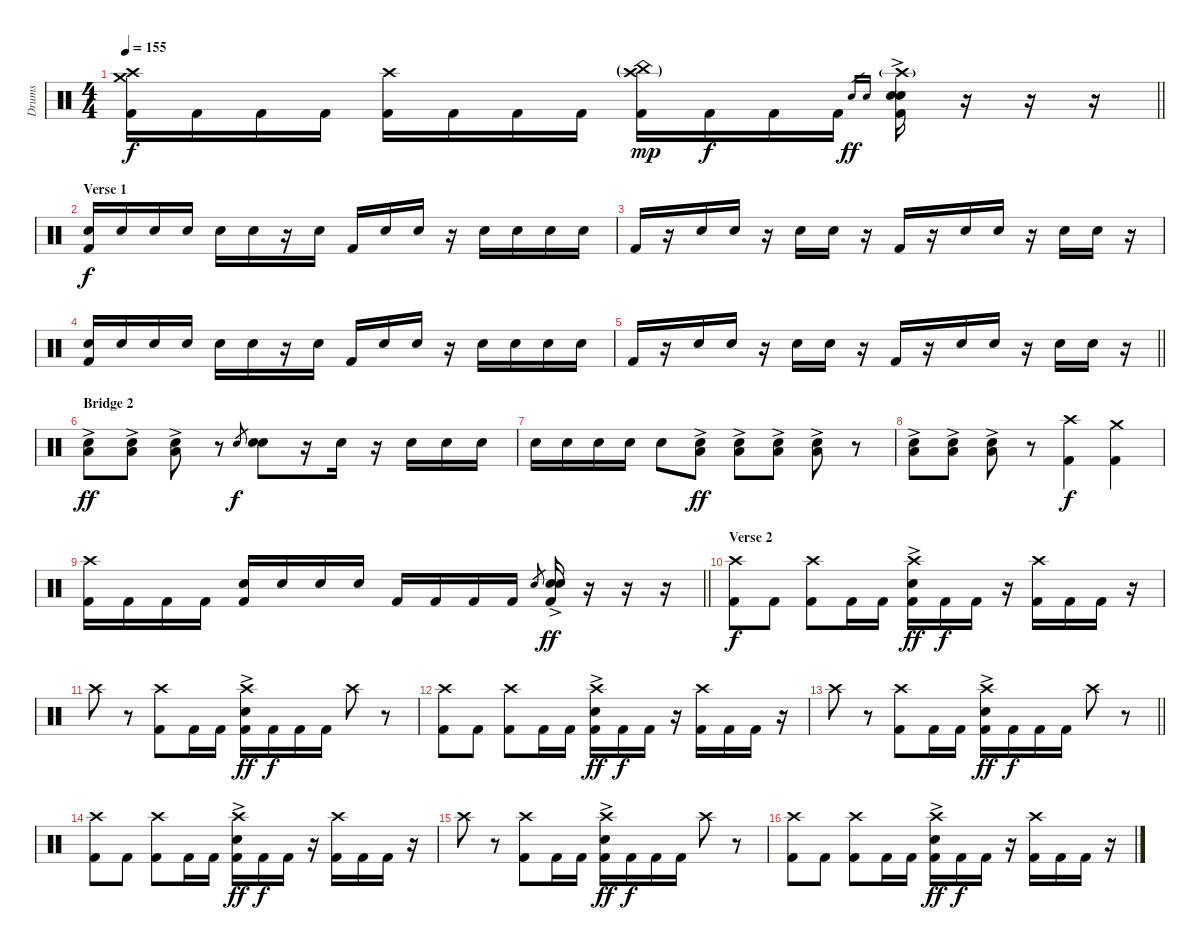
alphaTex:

\track ("Drums" "Drums") {instrument percussion}
\staff {score}
\articulation defaults
\ts (4 4)
\tempo 155
\clef neutral
\barLineRight lightlight
\ks c
("Crash high (hit)" "Crash medium (hit)" "Kick (hit) 2").16{dy f} "Kick (hit) 2".16 "Kick (hit) 2".16 "Kick (hit) 2".16 ("Crash high (hit)" "Kick (hit) 2").16 "Kick (hit) 2".16 "Kick (hit) 2".16 "Kick (hit) 2".16 ("Crash high (hit)"{g} "China (hit)"{g} "Kick (hit) 2").16{dy mp} "Kick (hit) 2".16{dy f} "Kick (hit) 2".16 "Kick (hit) 2".16 "Snare (hit) 2".16{gr dy ff} "Snare (hit) 2".16{gr} ("Crash high (hit)"{g} "Snare (hit) 2"{ac} "Snare (hit) 2"{ac} "Kick (hit) 2").16 r.16 r.16 r.16 |
\section ("" "Verse 1")
("Snare (hit) 2" "Kick (hit) 2").16{dy f} "Snare (hit) 2".16 "Snare (hit) 2".16 "Snare (hit) 2".16 "Snare (hit) 2".16 "Snare (hit) 2".16 r.16 "Snare (hit) 2".16 "Kick (hit) 2".16 "Snare (hit) 2".16 "Snare (hit) 2".16 r.16 "Snare (hit) 2".16 "Snare (hit) 2".16 "Snare (hit) 2".16 "Snare (hit) 2".16 |
"Kick (hit) 2".16 r.16 "Snare (hit) 2".16 "Snare (hit) 2".16 r.16 "Snare (hit) 2".16 "Snare (hit) 2".16 r.16 "Kick (hit) 2".16 r.16 "Snare (hit) 2".16 "Snare (hit) 2".16 r.16 "Snare (hit) 2".16 "Snare (hit) 2".16 r.16 |
("Snare (hit) 2" "Kick (hit) 2").16 "Snare (hit) 2".16 "Snare (hit) 2".16 "Snare (hit) 2".16 "Snare (hit) 2".16 "Snare (hit) 2".16 r.16 "Snare (hit) 2".16 "Kick (hit) 2".16 "Snare (hit) 2".16 "Snare (hit) 2".16 r.16 "Snare (hit) 2".16 "Snare (hit) 2".16 "Snare (hit) 2".16 "Snare (hit) 2".16 |
\barLineRight lightlight "Kick (hit) 2".16
r.16 "Snare (hit) 2".16 "Snare (hit) 2".16 r.16 "Snare (hit) 2".16 "Snare (hit) 2".16 r.16 "Kick (hit) 2".16 r.16 "Snare (hit) 2".16 "Snare (hit) 2".16 r.16 "Snare (hit) 2".16 "Snare (hit) 2".16 r.16 |
\section ("" "Bridge 2")
("Low Tom (hit)"{ac} "Snare (hit) 2").8{dy ff} ("Low Tom (hit)"{ac} "Snare (hit) 2").8 ("Low Tom (hit)"{ac} "Snare (hit) 2").8 r.8 "Snare (hit) 2".8{gr dy f} ("Snare (hit) 2" "Snare (hit) 2").8 r.16 "Snare (hit) 2".16 r.16 "Snare (hit) 2".16 "Snare (hit) 2".16 "Snare (hit) 2".16 |
"Snare (hit) 2".16 "Snare (hit) 2".16 "Snare (hit) 2".16 "Snare (hit) 2".16 "Snare (hit) 2".8 ("Low Tom (hit)"{ac} "Snare (hit) 2").8{dy ff} ("Low Tom (hit)"{ac} "Snare (hit) 2").8 ("Low Tom (hit)"{ac} "Snare (hit) 2").8 ("Low Tom (hit)"{ac} "Snare (hit) 2").8 r.8 |
("Low Tom (hit)"{ac} "Snare (hit) 2").8 ("Low Tom (hit)"{ac} "Snare (hit) 2").8 ("Low Tom (hit)"{ac} "Snare (hit) 2").8 r.8 ("Crash high (hit)" "Kick (hit) 2").4{dy f} ("Crash medium (hit)" "Kick (hit) 2").4 |
\barLineRight lightlight
("Crash high (hit)" "Kick (hit) 2").16 "Kick (hit) 2".16 "Kick (hit) 2".16 "Kick (hit) 2".16 ("Snare (hit) 2" "Kick (hit) 2").16 "Snare (hit) 2".16 "Snare (hit) 2".16 "Snare (hit) 2".16 "Kick (hit) 2".16 "Kick (hit) 2".16 "Kick (hit) 2".16 "Kick (hit) 2".16 "Snare (hit) 2".8{gr} ("Snare (hit) 2"{ac} "Snare (hit) 2" "Kick (hit) 2").16{dy ff} r.16 r.16 r.16 |
\section ("" "Verse 2")
("Crash high (hit)" "Kick (hit) 2").8{dy f} "Kick (hit) 2".8 ("Crash high (hit)" "Kick (hit) 2").8 "Kick (hit) 2".16 "Kick (hit) 2".16 ("Crash high (hit)" "Snare (hit) 2"{ac} "Kick (hit) 2").16{dy ff} "Kick (hit) 2".16{dy f} "Kick (hit) 2".16 r.16 ("Crash high (hit)" "Kick (hit) 2").16 "Kick (hit) 2".16 "Kick (hit) 2".16 r.16 |
"Crash high (hit)".8 r.8 ("Crash high (hit)" "Kick (hit) 2").8 "Kick (hit) 2".16 "Kick (hit) 2".16 ("Crash high (hit)" "Snare (hit) 2"{ac} "Kick (hit) 2").16{dy ff} "Kick (hit) 2".16{dy f} "Kick (hit) 2".16 "Kick (hit) 2".16 "Crash high (hit)".8 r.8 |
("Crash high (hit)" "Kick (hit) 2").8 "Kick (hit) 2".8 ("Crash high (hit)" "Kick (hit) 2").8 "Kick (hit) 2".16 "Kick (hit) 2".16 ("Crash high (hit)" "Snare (hit) 2"{ac} "Kick (hit) 2").16{dy ff} "Kick (hit) 2".16{dy f} "Kick (hit) 2".16 r.16 ("Crash high (hit)" "Kick (hit) 2").16 "Kick (hit) 2".16 "Kick (hit) 2".16 r.16 |
\barLineRight lightlight "Crash high (hit)".8
r.8 ("Crash high (hit)" "Kick (hit) 2").8 "Kick (hit) 2".16 "Kick (hit) 2".16 ("Crash high (hit)" "Snare (hit) 2"{ac} "Kick (hit) 2").16{dy ff} "Kick (hit) 2".16{dy f} "Kick (hit) 2".16 "Kick (hit) 2".16 "Crash high (hit)".8 r.8 |
("Crash high (hit)" "Kick (hit) 2").8 "Kick (hit) 2".8 ("Crash high (hit)" "Kick (hit) 2").8 "Kick (hit) 2".16 "Kick (hit) 2".16 ("Crash high (hit)" "Snare (hit) 2"{ac} "Kick (hit) 2").16{dy ff} "Kick (hit) 2".16{dy f} "Kick (hit) 2".16 r.16 ("Crash high (hit)" "Kick (hit) 2").16 "Kick (hit) 2".16 "Kick (hit) 2".16 r.16 |
"Crash high (hit)".8 r.8 ("Crash high (hit)" "Kick (hit) 2").8 "Kick (hit) 2".16 "Kick (hit) 2".16 ("Crash high (hit)" "Snare (hit) 2"{ac} "Kick (hit) 2").16{dy ff} "Kick (hit) 2".16{dy f} "Kick (hit) 2".16 "Kick (hit) 2".16 "Crash high (hit)".8 r.8 |
("Crash high (hit)" "Kick (hit) 2").8 "Kick (hit) 2".8 ("Crash high (hit)" "Kick (hit) 2").8 "Kick (hit) 2".16 "Kick (hit) 2".16 ("Crash high (hit)" "Snare (hit) 2"{ac} "Kick (hit) 2").16{dy ff} "Kick (hit) 2".16{dy f} "Kick (hit) 2".16 r.16 ("Crash high (hit)" "Kick (hit) 2").16 "Kick (hit) 2".16 "Kick (hit) 2".16 r.16
